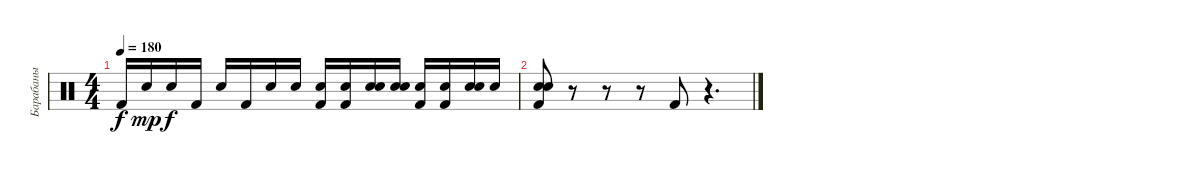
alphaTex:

\track ("Барабаны" "Барабаны") {instrument percussion}
\staff {score}
\articulation defaults
\ts (4 4)
\tempo 180
\clef neutral
\ks c "Kick (hit) 2".16{dy f} "Snare (hit)".16{dy mp} "Snare (hit) 2".16{dy f} "Kick (hit) 2".16 "Snare (hit)".16 "Kick (hit) 2".16 "Snare (hit) 2".16 "Snare (hit)".16
("Snare (hit)" "Kick (hit) 2").16 ("Snare (hit)" "Kick (hit) 2").16 ("Snare (hit)" "Snare (hit) 2").16 ("Snare (hit)" "Snare (hit)").16 ("Snare (hit)" "Kick (hit) 2").16 ("Snare (hit)" "Kick (hit) 2").16 ("Snare (hit)" "Snare (hit) 2").16 "Snare (hit)".16 |
("Snare (hit)" "Snare (hit)" "Kick (hit) 2").8 r.8 r.8 r.8 "Kick (hit) 2".8 r.4{d}
